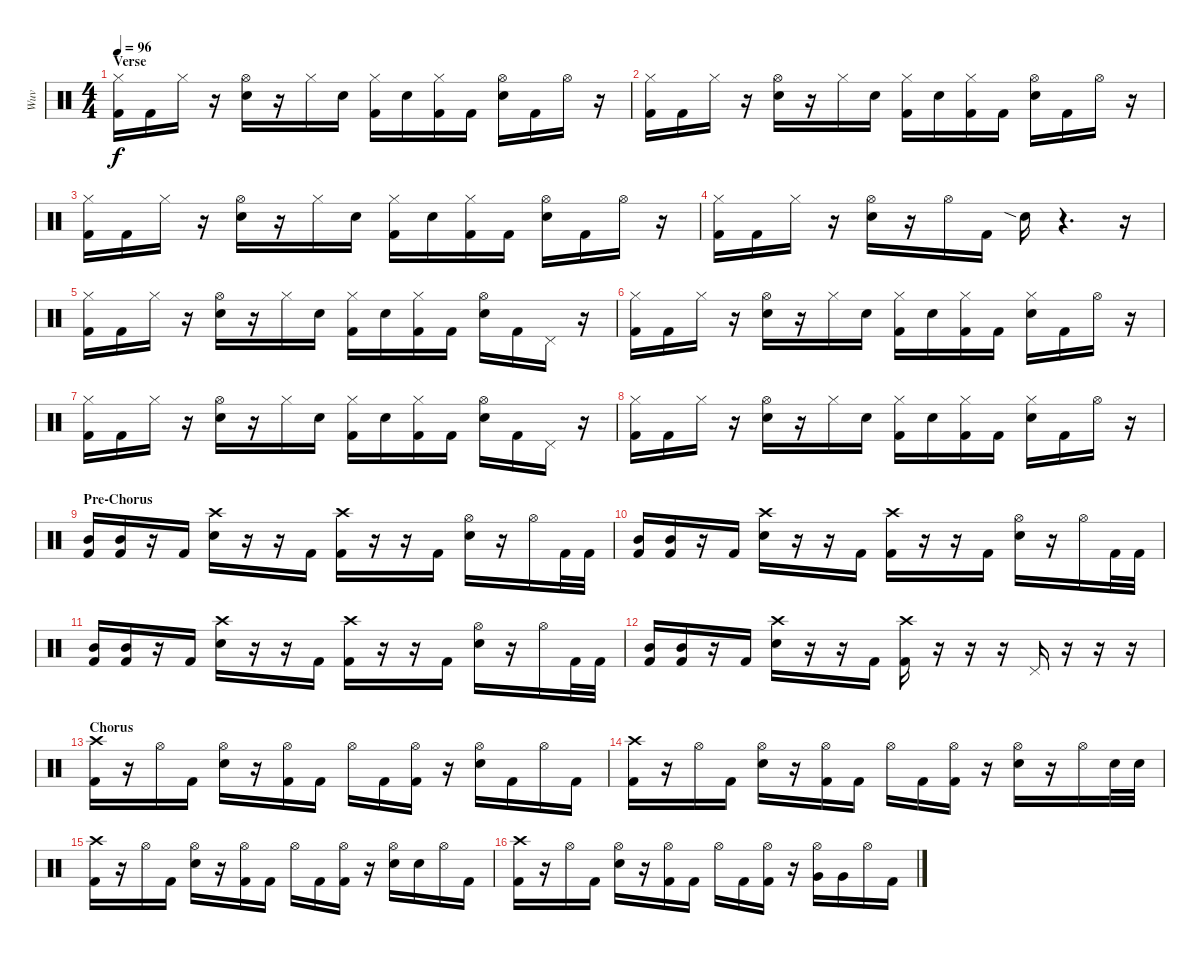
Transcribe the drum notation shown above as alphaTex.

\track ("Wuv" "Wuv") {instrument percussion}
\staff {score}
\articulation defaults
\ts (4 4)
\section ("" "Verse")
\tempo 96
\clef neutral
\ks c
("Hi-Hat (closed)" "Kick (hit) 2").16{dy f} "Kick (hit) 2".16 "Hi-Hat (closed)".16 r.16 ("Hi-Hat (open)" "Snare (hit) 2").16 r.16 "Hi-Hat (closed)".16 "Snare (hit) 2".16 ("Hi-Hat (closed)" "Kick (hit) 2").16 "Snare (hit) 2".16 ("Hi-Hat (closed)" "Kick (hit) 2").16 "Kick (hit) 2".16 ("Hi-Hat (open)" "Snare (hit) 2").16 "Kick (hit) 2".16 "Hi-Hat (open)".16 r.16 |
("Hi-Hat (closed)" "Kick (hit) 2").16 "Kick (hit) 2".16 "Hi-Hat (closed)".16 r.16 ("Hi-Hat (open)" "Snare (hit) 2").16 r.16 "Hi-Hat (closed)".16 "Snare (hit) 2".16 ("Hi-Hat (closed)" "Kick (hit) 2").16 "Snare (hit) 2".16 ("Hi-Hat (closed)" "Kick (hit) 2").16 "Kick (hit) 2".16 ("Hi-Hat (open)" "Snare (hit) 2").16 "Kick (hit) 2".16 "Hi-Hat (open)".16 r.16 |
("Hi-Hat (closed)" "Kick (hit) 2").16 "Kick (hit) 2".16 "Hi-Hat (closed)".16 r.16 ("Hi-Hat (open)" "Snare (hit) 2").16 r.16 "Hi-Hat (closed)".16 "Snare (hit) 2".16 ("Hi-Hat (closed)" "Kick (hit) 2").16 "Snare (hit) 2".16 ("Hi-Hat (closed)" "Kick (hit) 2").16 "Kick (hit) 2".16 ("Hi-Hat (open)" "Snare (hit) 2").16 "Kick (hit) 2".16 "Hi-Hat (open)".16 r.16 |
("Hi-Hat (closed)" "Kick (hit) 2").16 "Kick (hit) 2".16 "Hi-Hat (closed)".16 r.16 ("Hi-Hat (open)" "Snare (hit) 2").16 r.16 "Hi-Hat (open)".16 "Kick (hit) 2".16 "Snare (hit) 2"{sia}.16 r.4{d} r.16 |
("Hi-Hat (closed)" "Kick (hit) 2").16 "Kick (hit) 2".16 "Hi-Hat (closed)".16 r.16 ("Hi-Hat (open)" "Snare (hit) 2").16 r.16 "Hi-Hat (closed)".16 "Snare (hit) 2".16 ("Hi-Hat (closed)" "Kick (hit) 2").16 "Snare (hit) 2".16 ("Hi-Hat (closed)" "Kick (hit) 2").16 "Kick (hit) 2".16 ("Hi-Hat (open)" "Snare (hit) 2").16 "Kick (hit) 2".16 "Pedal Hi-Hat (hit)".16 r.16 |
("Hi-Hat (closed)" "Kick (hit) 2").16 "Kick (hit) 2".16 "Hi-Hat (closed)".16 r.16 ("Hi-Hat (open)" "Snare (hit) 2").16 r.16 "Hi-Hat (closed)".16 "Snare (hit) 2".16 ("Hi-Hat (closed)" "Kick (hit) 2").16 "Snare (hit) 2".16 ("Hi-Hat (closed)" "Kick (hit) 2").16 "Kick (hit) 2".16 ("Hi-Hat (closed)" "Snare (hit) 2").16 "Kick (hit) 2".16 "Hi-Hat (open)".16 r.16 |
("Hi-Hat (closed)" "Kick (hit) 2").16 "Kick (hit) 2".16 "Hi-Hat (closed)".16 r.16 ("Hi-Hat (open)" "Snare (hit) 2").16 r.16 "Hi-Hat (closed)".16 "Snare (hit) 2".16 ("Hi-Hat (closed)" "Kick (hit) 2").16 "Snare (hit) 2".16 ("Hi-Hat (closed)" "Kick (hit) 2").16 "Kick (hit) 2".16 ("Hi-Hat (open)" "Snare (hit) 2").16 "Kick (hit) 2".16 "Pedal Hi-Hat (hit)".16 r.16 |
("Hi-Hat (closed)" "Kick (hit) 2").16 "Kick (hit) 2".16 "Hi-Hat (closed)".16 r.16 ("Hi-Hat (open)" "Snare (hit) 2").16 r.16 "Hi-Hat (closed)".16 "Snare (hit) 2".16 ("Hi-Hat (closed)" "Kick (hit) 2").16 "Snare (hit) 2".16 ("Hi-Hat (closed)" "Kick (hit) 2").16 "Kick (hit) 2".16 ("Hi-Hat (closed)" "Snare (hit) 2").16 "Kick (hit) 2".16 "Hi-Hat (open)".16 r.16 |
\section ("" "Pre-Chorus")
("Mid Tom (hit)" "Kick (hit) 2").16 ("Mid Tom (hit)" "Kick (hit) 2").16 r.16 "Kick (hit) 2".16 ("Crash high (hit)" "Snare (hit) 2").16 r.16 r.16 "Kick (hit) 2".16 ("Crash high (hit)" "Kick (hit) 2").16 r.16 r.16 "Kick (hit) 2".16 ("Hi-Hat (open)" "Snare (hit) 2").16 r.16 "Hi-Hat (open)".16 "Kick (hit) 2".32 "Kick (hit) 2".32 |
("Mid Tom (hit)" "Kick (hit) 2").16 ("Mid Tom (hit)" "Kick (hit) 2").16 r.16 "Kick (hit) 2".16 ("Crash high (hit)" "Snare (hit) 2").16 r.16 r.16 "Kick (hit) 2".16 ("Crash high (hit)" "Kick (hit) 2").16 r.16 r.16 "Kick (hit) 2".16 ("Hi-Hat (open)" "Snare (hit) 2").16 r.16 "Hi-Hat (open)".16 "Kick (hit) 2".32 "Kick (hit) 2".32 |
("Mid Tom (hit)" "Kick (hit) 2").16 ("Mid Tom (hit)" "Kick (hit) 2").16 r.16 "Kick (hit) 2".16 ("Crash high (hit)" "Snare (hit) 2").16 r.16 r.16 "Kick (hit) 2".16 ("Crash high (hit)" "Kick (hit) 2").16 r.16 r.16 "Kick (hit) 2".16 ("Hi-Hat (open)" "Snare (hit) 2").16 r.16 "Hi-Hat (open)".16 "Kick (hit) 2".32 "Kick (hit) 2".32 |
("Mid Tom (hit)" "Kick (hit) 2").16 ("Mid Tom (hit)" "Kick (hit) 2").16 r.16 "Kick (hit) 2".16 ("Crash high (hit)" "Snare (hit) 2").16 r.16 r.16 "Kick (hit) 2".16 ("Crash high (hit)" "Kick (hit) 2").16 r.16 r.16 r.16 "Pedal Hi-Hat (hit)".16 r.16 r.16 r.16 |
\section ("" "Chorus")
("Crash high (hit)" "Kick (hit) 2").16 r.16 "Hi-Hat (open)".16 "Kick (hit) 2".16 ("Hi-Hat (open)" "Snare (hit) 2").16 r.16 ("Hi-Hat (open)" "Kick (hit) 2").16 "Kick (hit) 2".16 "Hi-Hat (open)".16 "Kick (hit) 2".16 ("Hi-Hat (open)" "Kick (hit) 2").16 r.16 ("Hi-Hat (open)" "Snare (hit) 2").16 "Kick (hit) 2".16 "Hi-Hat (open)".16 "Kick (hit) 2".16 |
("Crash high (hit)" "Kick (hit) 2").16 r.16 "Hi-Hat (open)".16 "Kick (hit) 2".16 ("Hi-Hat (open)" "Snare (hit) 2").16 r.16 ("Hi-Hat (open)" "Kick (hit) 2").16 "Kick (hit) 2".16 "Hi-Hat (open)".16 "Kick (hit) 2".16 ("Hi-Hat (open)" "Kick (hit) 2").16 r.16 ("Hi-Hat (open)" "Snare (hit) 2").16 r.16 "Hi-Hat (open)".16 "Snare (hit) 2".32 "Snare (hit) 2".32 |
("Crash high (hit)" "Kick (hit) 2").16 r.16 "Hi-Hat (open)".16 "Kick (hit) 2".16 ("Hi-Hat (open)" "Snare (hit) 2").16 r.16 ("Hi-Hat (open)" "Kick (hit) 2").16 "Kick (hit) 2".16 "Hi-Hat (open)".16 "Kick (hit) 2".16 ("Hi-Hat (open)" "Kick (hit) 2").16 r.16 ("Hi-Hat (open)" "Snare (hit) 2").16 "Snare (hit) 2".16 "Hi-Hat (open)".16 "Kick (hit) 2".16 |
("Crash high (hit)" "Kick (hit) 2").16 r.16 "Hi-Hat (open)".16 "Kick (hit) 2".16 ("Hi-Hat (open)" "Snare (hit) 2").16 r.16 ("Hi-Hat (open)" "Kick (hit) 2").16 "Kick (hit) 2".16 "Hi-Hat (open)".16 "Kick (hit) 2".16 ("Hi-Hat (open)" "Kick (hit) 2").16 r.16 ("Hi-Hat (open)" "Very Low Tom (hit)").16 "Very Low Tom (hit)".16 "Hi-Hat (open)".16 "Kick (hit) 2".16
